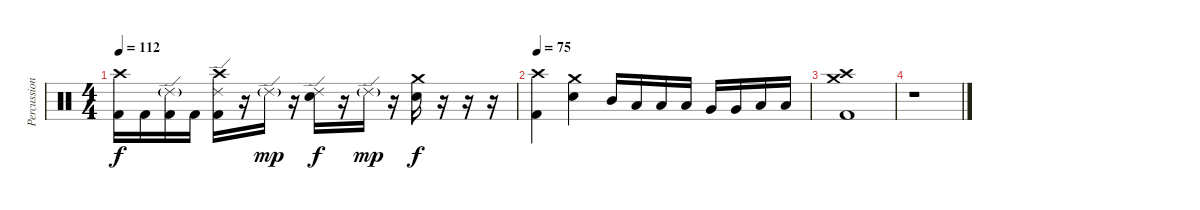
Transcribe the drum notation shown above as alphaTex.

\track ("Percussion" "Percussion") {instrument percussion}
\staff {score}
\articulation defaults
\ts (4 4)
\tempo 112
\clef neutral
\ks c
("Crash high (hit)" "Kick (hit) 2").16{dy f} "Kick (hit) 2".16 ("Ride (edge) 2"{g} "Kick (hit) 2").16 "Kick (hit) 2".16 ("Crash high (hit)" "Ride (edge) 2" "Kick (hit) 2").16 r.16 "Ride (edge) 2"{g}.16{dy mp} r.16 ("Ride (edge) 2" "Electric Snare (hit)").16{dy f} r.16 "Ride (edge) 2"{g}.16{dy mp} r.16 ("Crash medium (hit)" "Electric Snare (hit)").16{dy f} r.16 r.16 r.16 |
\tempo 75
("Crash high (hit)" "Kick (hit) 2").4 ("Crash medium (hit)" "Electric Snare (hit)").4 "Mid Tom (hit)".16 "Low Tom (hit)".16 "Low Tom (hit)".16 "Low Tom (hit)".16 "Very Low Tom (hit)".16 "Very Low Tom (hit)".16 "Low Floor Tom (hit)".16 "Low Floor Tom (hit)".16 |
("Crash medium (hit)" "Crash high (hit)" "Kick (hit) 2").1 |
r.1
